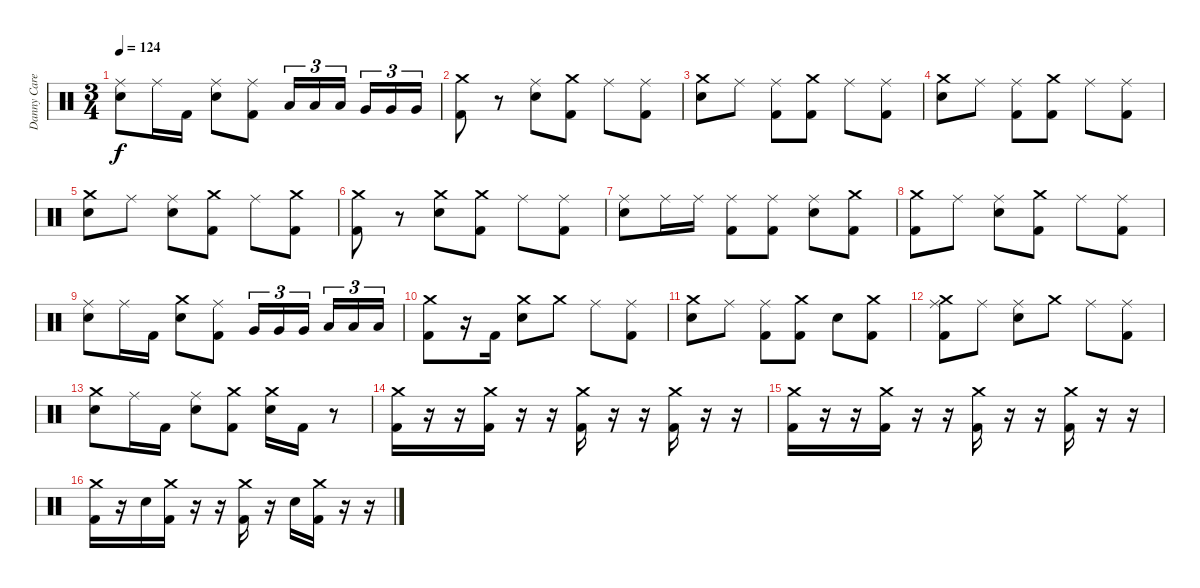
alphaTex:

\track ("Danny Carey" "Danny Care") {instrument percussion}
\staff {score}
\articulation defaults
\ts (3 4)
\tempo 124
\clef neutral
\ks c
("Ride (middle)" "Electric Snare (hit)").8{dy f} "Ride (middle)".16 "Kick (hit) 2".16 ("Ride (middle)" "Electric Snare (hit)").8 ("Ride (middle)" "Kick (hit) 2").8 "Low Tom (hit)".16{tu (3 2)} "Low Tom (hit)".16{tu (3 2)} "Low Tom (hit)".16{tu (3 2)} "Very Low Tom (hit)".16{tu (3 2)} "Very Low Tom (hit)".16{tu (3 2)} "Very Low Tom (hit)".16{tu (3 2)} |
("Crash medium (hit)" "Kick (hit) 2").8 r.8 ("Ride (middle)" "Electric Snare (hit)").8 ("Crash medium (hit)" "Kick (hit) 2").8 "Ride (middle)".8 ("Ride (middle)" "Kick (hit) 2").8 |
("Crash medium (hit)" "Electric Snare (hit)").8 "Ride (middle)".8 ("Ride (middle)" "Kick (hit) 2").8 ("Crash medium (hit)" "Kick (hit) 2").8 "Ride (middle)".8 ("Ride (middle)" "Kick (hit) 2").8 |
("Crash medium (hit)" "Electric Snare (hit)").8 "Ride (middle)".8 ("Ride (middle)" "Kick (hit) 2").8 ("Crash medium (hit)" "Kick (hit) 2").8 "Ride (middle)".8 ("Ride (middle)" "Kick (hit) 2").8 |
("Crash medium (hit)" "Electric Snare (hit)").8 "Ride (middle)".8 ("Ride (middle)" "Electric Snare (hit)").8 ("Crash medium (hit)" "Kick (hit) 2").8 "Ride (middle)".8 ("Crash medium (hit)" "Kick (hit) 2").8 |
("Crash medium (hit)" "Kick (hit) 2").8 r.8 ("Crash medium (hit)" "Electric Snare (hit)").8 ("Crash medium (hit)" "Kick (hit) 2").8 "Ride (middle)".8 ("Ride (middle)" "Kick (hit) 2").8 |
("Ride (middle)" "Electric Snare (hit)").8 "Ride (middle)".16 "Ride (middle)".16 ("Ride (middle)" "Kick (hit) 2").8 ("Ride (middle)" "Kick (hit) 2").8 ("Ride (middle)" "Electric Snare (hit)").8 ("Crash medium (hit)" "Kick (hit) 2").8 |
("Crash medium (hit)" "Kick (hit) 2").8 "Ride (middle)".8 ("Ride (middle)" "Electric Snare (hit)").8 ("Crash medium (hit)" "Kick (hit) 2").8 "Ride (middle)".8 ("Ride (middle)" "Kick (hit) 2").8 |
("Ride (middle)" "Electric Snare (hit)").8 "Ride (middle)".16 "Kick (hit) 2".16 ("Crash medium (hit)" "Electric Snare (hit)").8 ("Ride (middle)" "Kick (hit) 2").8 "Very Low Tom (hit)".16{tu (3 2)} "Very Low Tom (hit)".16{tu (3 2)} "Very Low Tom (hit)".16{tu (3 2)} "Low Floor Tom (hit)".16{tu (3 2)} "Low Floor Tom (hit)".16{tu (3 2)} "Low Floor Tom (hit)".16{tu (3 2)} |
("Crash medium (hit)" "Kick (hit) 2").8 r.16 "Kick (hit) 2".16 ("Crash medium (hit)" "Electric Snare (hit)").8 "Crash medium (hit)".8 "Ride (middle)".8 ("Ride (middle)" "Kick (hit) 2").8 |
("Crash medium (hit)" "Electric Snare (hit)").8 "Ride (middle)".8 ("Ride (middle)" "Kick (hit) 2").8 ("Crash medium (hit)" "Kick (hit) 2").8 "Electric Snare (hit)".8 ("Crash medium (hit)" "Kick (hit) 2").8 |
("Crash medium (hit)" "Ride (middle)" "Kick (hit) 2").8 "Ride (middle)".8 ("Ride (middle)" "Electric Snare (hit)").8 "Crash medium (hit)".8 "Ride (middle)".8 ("Ride (middle)" "Kick (hit) 2").8 |
("Crash medium (hit)" "Electric Snare (hit)").8 "Ride (middle)".16 "Kick (hit) 2".16 ("Ride (middle)" "Electric Snare (hit)").8 ("Crash medium (hit)" "Kick (hit) 2").8 ("Crash medium (hit)" "Electric Snare (hit)").16 "Kick (hit) 2".16 r.8 |
("Crash medium (hit)" "Kick (hit) 2").16 r.16 r.16 ("Crash medium (hit)" "Kick (hit) 2").16 r.16 r.16 ("Crash medium (hit)" "Kick (hit) 2").16 r.16 r.16 ("Crash medium (hit)" "Kick (hit) 2").16 r.16 r.16 |
("Crash medium (hit)" "Kick (hit) 2").16 r.16 r.16 ("Crash medium (hit)" "Kick (hit) 2").16 r.16 r.16 ("Crash medium (hit)" "Kick (hit) 2").16 r.16 r.16 ("Crash medium (hit)" "Kick (hit) 2").16 r.16 r.16 |
("Crash medium (hit)" "Kick (hit) 2").16 r.16 "Electric Snare (hit)".16 ("Crash medium (hit)" "Kick (hit) 2").16 r.16 r.16 ("Crash medium (hit)" "Kick (hit) 2").16 r.16 "Electric Snare (hit)".16 ("Crash medium (hit)" "Kick (hit) 2").16 r.16 r.16
